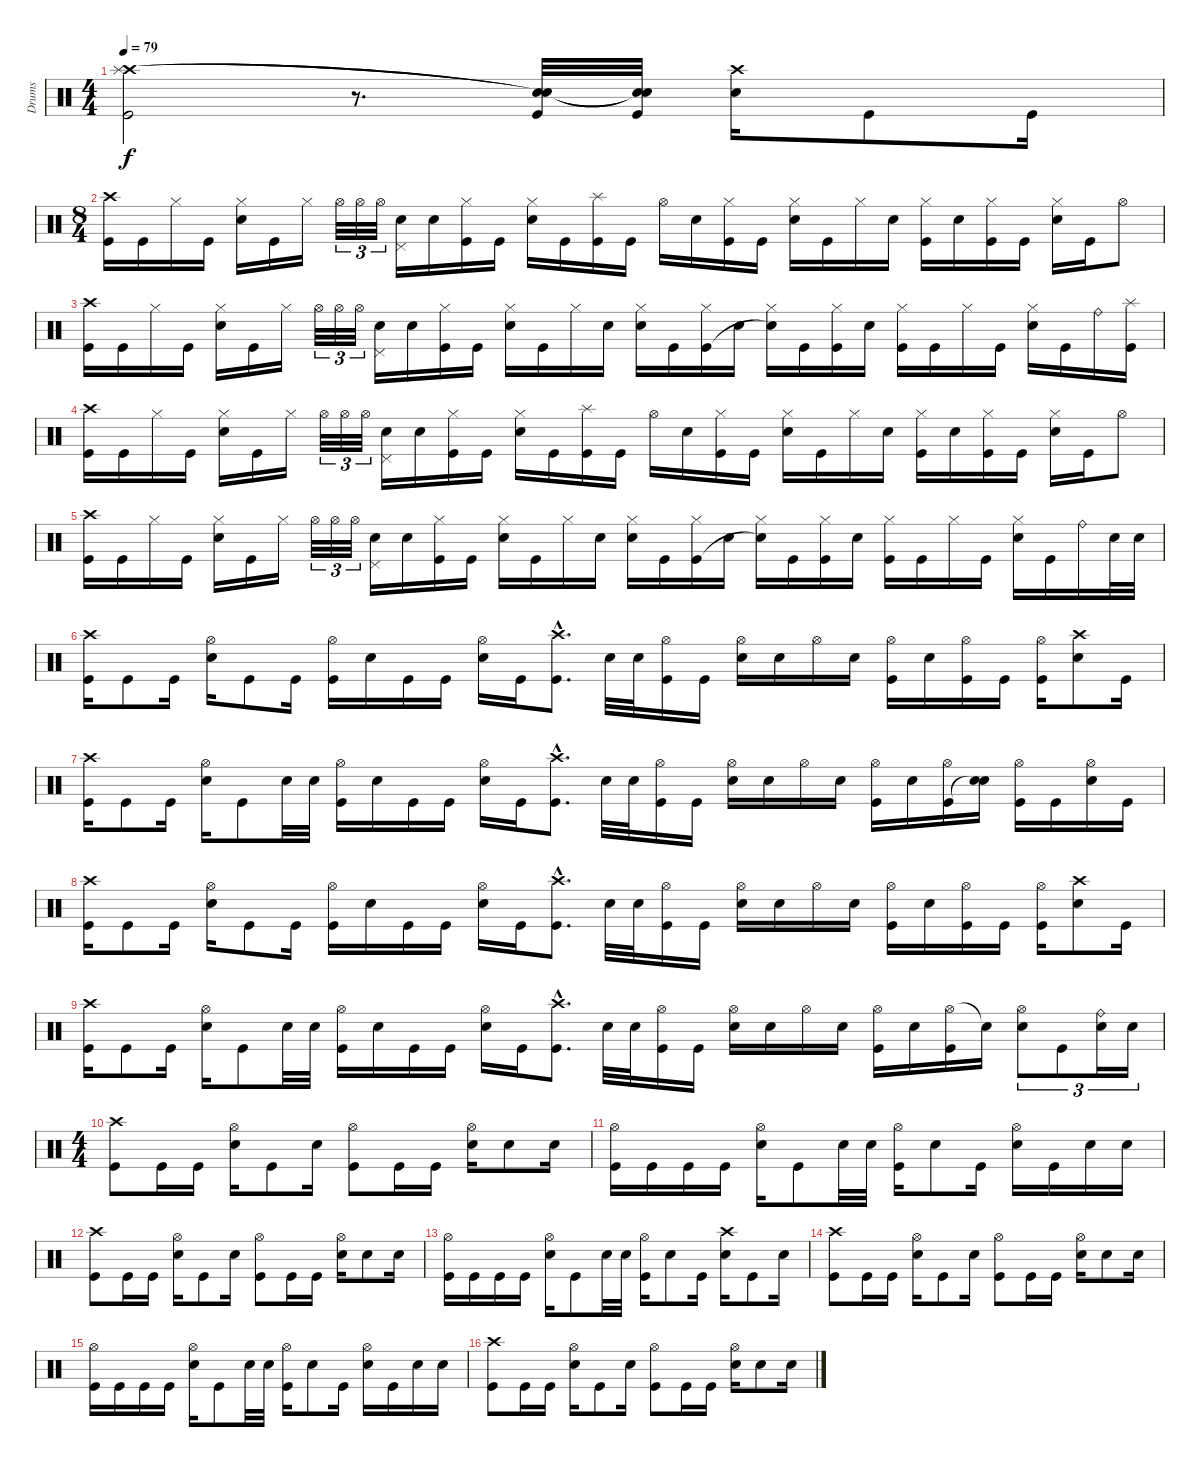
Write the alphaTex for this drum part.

\track ("Drums" "Drums") {instrument percussion}
\staff {score}
\articulation defaults
\ts (4 4)
\tempo 79
\clef neutral
\ks c
("Crash high (hit)" "Splash (hit)" "Kick (hit)").2{dy f} r.8{d} ("Snare (hit)"{t} "Snare (hit)"{t} "Kick (hit)").32 ("Snare (hit)"{t} "Snare (hit)"{t} "Kick (hit)").32 ("Crash high (hit)" "Electric Snare (hit)").16 "Kick (hit)".8 "Kick (hit)".16 |
\ts (8 4)
("Crash high (hit)" "Kick (hit)").16 "Kick (hit)".16 "Hi-Hat (closed)".16 "Kick (hit)".16 ("Hi-Hat (closed)" "Electric Snare (hit)").16 "Kick (hit)".16 "Hi-Hat (closed)".16 "Hi-Hat (open)".32{tu (3 2)} "Hi-Hat (open)".32{tu (3 2)} "Hi-Hat (open)".32{tu (3 2)} ("Pedal Hi-Hat (hit)" "Electric Snare (hit)").16 "Electric Snare (hit)".16 ("Hi-Hat (closed)" "Kick (hit)").16 "Kick (hit)".16 ("Hi-Hat (closed)" "Electric Snare (hit)").16 "Kick (hit)".16 ("Splash (hit)" "Kick (hit)").16 "Kick (hit)".16 "Hi-Hat (open)".16 "Electric Snare (hit)".16 ("Hi-Hat (closed)" "Kick (hit)").16 "Kick (hit)".16 ("Hi-Hat (closed)" "Electric Snare (hit)").16 "Kick (hit)".16 "Hi-Hat (closed)".16 "Electric Snare (hit)".16 ("Hi-Hat (closed)" "Kick (hit)").16 "Electric Snare (hit)".16 ("Hi-Hat (closed)" "Kick (hit)").16 "Kick (hit)".16 ("Hi-Hat (closed)" "Electric Snare (hit)").16 "Kick (hit)".16 "Hi-Hat (open)".8 |
("Crash high (hit)" "Kick (hit)").16 "Kick (hit)".16 "Hi-Hat (closed)".16 "Kick (hit)".16 ("Hi-Hat (closed)" "Electric Snare (hit)").16 "Kick (hit)".16 "Hi-Hat (closed)".16 "Hi-Hat (open)".32{tu (3 2)} "Hi-Hat (open)".32{tu (3 2)} "Hi-Hat (open)".32{tu (3 2)} ("Pedal Hi-Hat (hit)" "Electric Snare (hit)").16 "Electric Snare (hit)".16 ("Hi-Hat (closed)" "Kick (hit)").16 "Kick (hit)".16 ("Hi-Hat (closed)" "Electric Snare (hit)").16 "Kick (hit)".16 "Hi-Hat (closed)".16 "Electric Snare (hit)".16 ("Hi-Hat (closed)" "Electric Snare (hit)").16 "Kick (hit)".16 ("Hi-Hat (closed)" "Kick (hit)").16 "Electric Snare (hit)".16 ("Hi-Hat (closed)" "Electric Snare (hit)"{t}).16 "Kick (hit)".16 ("Hi-Hat (closed)" "Kick (hit)").16 "Electric Snare (hit)".16 ("Hi-Hat (closed)" "Kick (hit)").16 "Kick (hit)".16 "Hi-Hat (closed)".16 "Kick (hit)".16 ("Hi-Hat (closed)" "Electric Snare (hit)").16 "Kick (hit)".16 "Ride (bell)".16 ("Splash (hit)" "Kick (hit)").16 |
("Crash high (hit)" "Kick (hit)").16 "Kick (hit)".16 "Hi-Hat (closed)".16 "Kick (hit)".16 ("Hi-Hat (closed)" "Electric Snare (hit)").16 "Kick (hit)".16 "Hi-Hat (closed)".16 "Hi-Hat (open)".32{tu (3 2)} "Hi-Hat (open)".32{tu (3 2)} "Hi-Hat (open)".32{tu (3 2)} ("Pedal Hi-Hat (hit)" "Electric Snare (hit)").16 "Electric Snare (hit)".16 ("Hi-Hat (closed)" "Kick (hit)").16 "Kick (hit)".16 ("Hi-Hat (closed)" "Electric Snare (hit)").16 "Kick (hit)".16 ("Splash (hit)" "Kick (hit)").16 "Kick (hit)".16 "Hi-Hat (open)".16 "Electric Snare (hit)".16 ("Hi-Hat (closed)" "Kick (hit)").16 "Kick (hit)".16 ("Hi-Hat (closed)" "Electric Snare (hit)").16 "Kick (hit)".16 "Hi-Hat (closed)".16 "Electric Snare (hit)".16 ("Hi-Hat (closed)" "Kick (hit)").16 "Electric Snare (hit)".16 ("Hi-Hat (closed)" "Kick (hit)").16 "Kick (hit)".16 ("Hi-Hat (closed)" "Electric Snare (hit)").16 "Kick (hit)".16 "Hi-Hat (open)".8 |
("Crash high (hit)" "Kick (hit)").16 "Kick (hit)".16 "Hi-Hat (closed)".16 "Kick (hit)".16 ("Hi-Hat (closed)" "Electric Snare (hit)").16 "Kick (hit)".16 "Hi-Hat (closed)".16 "Hi-Hat (open)".32{tu (3 2)} "Hi-Hat (open)".32{tu (3 2)} "Hi-Hat (open)".32{tu (3 2)} ("Pedal Hi-Hat (hit)" "Electric Snare (hit)").16 "Electric Snare (hit)".16 ("Hi-Hat (closed)" "Kick (hit)").16 "Kick (hit)".16 ("Hi-Hat (closed)" "Electric Snare (hit)").16 "Kick (hit)".16 "Hi-Hat (closed)".16 "Electric Snare (hit)".16 ("Hi-Hat (closed)" "Electric Snare (hit)").16 "Kick (hit)".16 ("Hi-Hat (closed)" "Kick (hit)").16 "Electric Snare (hit)".16 ("Hi-Hat (closed)" "Electric Snare (hit)"{t}).16 "Kick (hit)".16 ("Hi-Hat (closed)" "Kick (hit)").16 "Electric Snare (hit)".16 ("Hi-Hat (closed)" "Kick (hit)").16 "Kick (hit)".16 "Hi-Hat (closed)".16 "Kick (hit)".16 ("Hi-Hat (closed)" "Electric Snare (hit)").16 "Kick (hit)".16 "Ride (bell)".16 "Electric Snare (hit)".32 "Electric Snare (hit)".32 |
("Crash high (hit)" "Kick (hit)").16 "Kick (hit)".8 "Kick (hit)".16 ("Hi-Hat (open)" "Electric Snare (hit)").16 "Kick (hit)".8 "Kick (hit)".16 ("Hi-Hat (open)" "Kick (hit)").16 "Electric Snare (hit)".16 "Kick (hit)".16 "Kick (hit)".16 ("Hi-Hat (open)" "Electric Snare (hit)").16 "Kick (hit)".16 ("Crash high (hit)"{hac} "Kick (hit)"{hac}).8{d} "Electric Snare (hit)".32 "Electric Snare (hit)".32 ("Hi-Hat (open)" "Kick (hit)").16 "Kick (hit)".16 ("Hi-Hat (open)" "Electric Snare (hit)").16 "Electric Snare (hit)".16 "Hi-Hat (open)".16 "Electric Snare (hit)".16 ("Hi-Hat (open)" "Kick (hit)").16 "Electric Snare (hit)".16 ("Hi-Hat (open)" "Kick (hit)").16 "Kick (hit)".16 ("Hi-Hat (open)" "Kick (hit)").16 ("Crash high (hit)" "Electric Snare (hit)").8 "Kick (hit)".16 |
("Crash high (hit)" "Kick (hit)").16 "Kick (hit)".8 "Kick (hit)".16 ("Hi-Hat (open)" "Electric Snare (hit)").16 "Kick (hit)".8 "Electric Snare (hit)".32 "Electric Snare (hit)".32 ("Hi-Hat (open)" "Kick (hit)").16 "Electric Snare (hit)".16 "Kick (hit)".16 "Kick (hit)".16 ("Hi-Hat (open)" "Electric Snare (hit)").16 "Kick (hit)".16 ("Crash high (hit)"{hac} "Kick (hit)"{hac}).8{d} "Electric Snare (hit)".32 "Electric Snare (hit)".32 ("Hi-Hat (open)" "Kick (hit)").16 "Kick (hit)".16 ("Hi-Hat (open)" "Electric Snare (hit)").16 "Electric Snare (hit)".16 "Hi-Hat (open)".16 "Electric Snare (hit)".16 ("Hi-Hat (open)" "Kick (hit)").16 "Electric Snare (hit)".16 ("Hi-Hat (open)" "Kick (hit)").16 ("Electric Snare (hit)" "Snare (hit)"{t}).16 ("Hi-Hat (open)" "Kick (hit)").16 "Kick (hit)".16 ("Hi-Hat (open)" "Electric Snare (hit)").16 "Kick (hit)".16 |
("Crash high (hit)" "Kick (hit)").16 "Kick (hit)".8 "Kick (hit)".16 ("Hi-Hat (open)" "Electric Snare (hit)").16 "Kick (hit)".8 "Kick (hit)".16 ("Hi-Hat (open)" "Kick (hit)").16 "Electric Snare (hit)".16 "Kick (hit)".16 "Kick (hit)".16 ("Hi-Hat (open)" "Electric Snare (hit)").16 "Kick (hit)".16 ("Crash high (hit)"{hac} "Kick (hit)"{hac}).8{d} "Electric Snare (hit)".32 "Electric Snare (hit)".32 ("Hi-Hat (open)" "Kick (hit)").16 "Kick (hit)".16 ("Hi-Hat (open)" "Electric Snare (hit)").16 "Electric Snare (hit)".16 "Hi-Hat (open)".16 "Electric Snare (hit)".16 ("Hi-Hat (open)" "Kick (hit)").16 "Electric Snare (hit)".16 ("Hi-Hat (open)" "Kick (hit)").16 "Kick (hit)".16 ("Hi-Hat (open)" "Kick (hit)").16 ("Crash high (hit)" "Electric Snare (hit)").8 "Kick (hit)".16 |
("Crash high (hit)" "Kick (hit)").16 "Kick (hit)".8 "Kick (hit)".16 ("Hi-Hat (open)" "Electric Snare (hit)").16 "Kick (hit)".8 "Electric Snare (hit)".32 "Electric Snare (hit)".32 ("Hi-Hat (open)" "Kick (hit)").16 "Electric Snare (hit)".16 "Kick (hit)".16 "Kick (hit)".16 ("Hi-Hat (open)" "Electric Snare (hit)").16 "Kick (hit)".16 ("Crash high (hit)"{hac} "Kick (hit)"{hac}).8{d} "Electric Snare (hit)".32 "Electric Snare (hit)".32 ("Hi-Hat (open)" "Kick (hit)").16 "Kick (hit)".16 ("Hi-Hat (open)" "Electric Snare (hit)").16 "Electric Snare (hit)".16 "Hi-Hat (open)".16 "Electric Snare (hit)".16 ("Hi-Hat (open)" "Kick (hit)").16 "Electric Snare (hit)".16 ("Hi-Hat (open)" "Kick (hit)").16 "Snare (hit)"{t}.16 ("Hi-Hat (open)" "Electric Snare (hit)").8{tu (3 2)} "Kick (hit)".8{tu (3 2)} ("Ride (bell)" "Electric Snare (hit)").16{tu (3 2)} "Electric Snare (hit)".16{tu (3 2)} |
\ts (4 4)
("Crash high (hit)" "Kick (hit)").8 "Kick (hit)".16 "Kick (hit)".16 ("Hi-Hat (open)" "Electric Snare (hit)").16 "Kick (hit)".8 "Electric Snare (hit)".16 ("Hi-Hat (open)" "Kick (hit)").8 "Kick (hit)".16 "Kick (hit)".16 ("Hi-Hat (open)" "Electric Snare (hit)").16 "Electric Snare (hit)".8 "Electric Snare (hit)".16 |
("Hi-Hat (open)" "Kick (hit)").16 "Kick (hit)".16 "Kick (hit)".16 "Kick (hit)".16 ("Hi-Hat (open)" "Electric Snare (hit)").16 "Kick (hit)".8 "Electric Snare (hit)".32 "Electric Snare (hit)".32 ("Hi-Hat (open)" "Kick (hit)").16 "Electric Snare (hit)".8 "Kick (hit)".16 ("Hi-Hat (open)" "Electric Snare (hit)").16 "Kick (hit)".16 "Electric Snare (hit)".16 "Electric Snare (hit)".16 |
("Crash high (hit)" "Kick (hit)").8 "Kick (hit)".16 "Kick (hit)".16 ("Hi-Hat (open)" "Electric Snare (hit)").16 "Kick (hit)".8 "Electric Snare (hit)".16 ("Hi-Hat (open)" "Kick (hit)").8 "Kick (hit)".16 "Kick (hit)".16 ("Hi-Hat (open)" "Electric Snare (hit)").16 "Electric Snare (hit)".8 "Electric Snare (hit)".16 |
("Hi-Hat (open)" "Kick (hit)").16 "Kick (hit)".16 "Kick (hit)".16 "Kick (hit)".16 ("Hi-Hat (open)" "Electric Snare (hit)").16 "Kick (hit)".8 "Electric Snare (hit)".32 "Electric Snare (hit)".32 ("Hi-Hat (open)" "Kick (hit)").16 "Electric Snare (hit)".8 "Kick (hit)".16 ("Crash high (hit)" "Electric Snare (hit)").16 "Kick (hit)".8 "Electric Snare (hit)".16 |
("Crash high (hit)" "Kick (hit)").8 "Kick (hit)".16 "Kick (hit)".16 ("Hi-Hat (open)" "Electric Snare (hit)").16 "Kick (hit)".8 "Electric Snare (hit)".16 ("Hi-Hat (open)" "Kick (hit)").8 "Kick (hit)".16 "Kick (hit)".16 ("Hi-Hat (open)" "Electric Snare (hit)").16 "Electric Snare (hit)".8 "Electric Snare (hit)".16 |
("Hi-Hat (open)" "Kick (hit)").16 "Kick (hit)".16 "Kick (hit)".16 "Kick (hit)".16 ("Hi-Hat (open)" "Electric Snare (hit)").16 "Kick (hit)".8 "Electric Snare (hit)".32 "Electric Snare (hit)".32 ("Hi-Hat (open)" "Kick (hit)").16 "Electric Snare (hit)".8 "Kick (hit)".16 ("Hi-Hat (open)" "Electric Snare (hit)").16 "Kick (hit)".16 "Electric Snare (hit)".16 "Electric Snare (hit)".16 |
("Crash high (hit)" "Kick (hit)").8 "Kick (hit)".16 "Kick (hit)".16 ("Hi-Hat (open)" "Electric Snare (hit)").16 "Kick (hit)".8 "Electric Snare (hit)".16 ("Hi-Hat (open)" "Kick (hit)").8 "Kick (hit)".16 "Kick (hit)".16 ("Hi-Hat (open)" "Electric Snare (hit)").16 "Electric Snare (hit)".8 "Electric Snare (hit)".16
